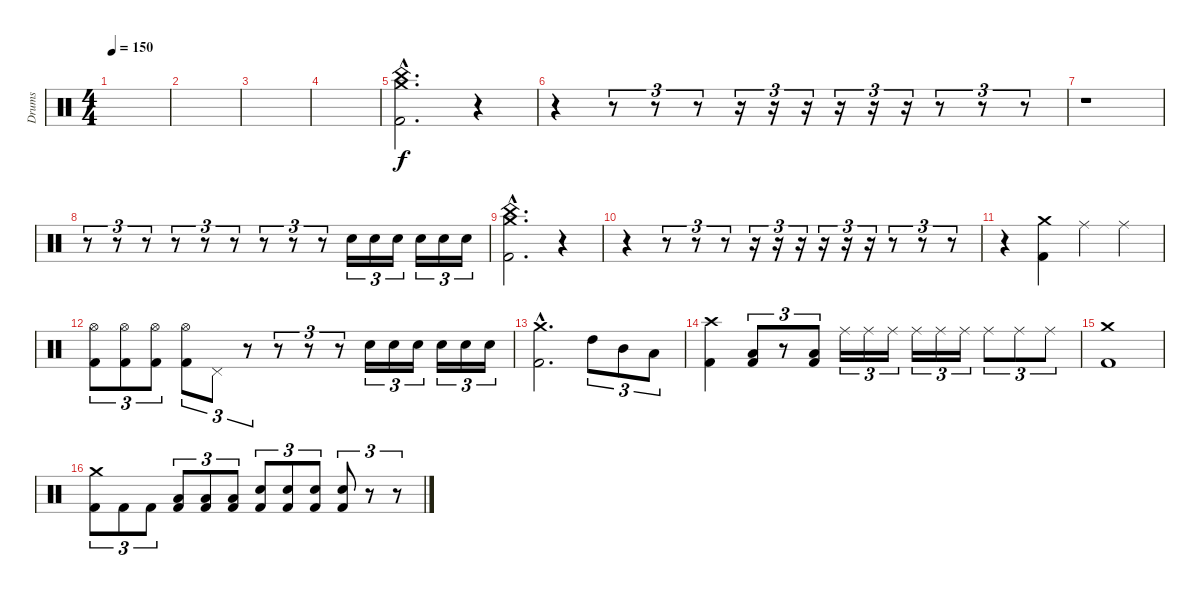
\track ("Drums" "Drums") {instrument percussion}
\staff {score}
\articulation defaults
\ts (4 4)
\tempo 150
\clef neutral
\ks c
|
|
|
|
("China (hit)"{hac} "Crash medium (hit)"{hac} "Kick (hit) 2"{hac}).2{d} r.4 |
r.4 r.8{tu (3 2)} r.8{tu (3 2)} r.8{tu (3 2)} r.16{tu (3 2)} r.16{tu (3 2)} r.16{tu (3 2)} r.16{tu (3 2)} r.16{tu (3 2)} r.16{tu (3 2)} r.8{tu (3 2)} r.8{tu (3 2)} r.8{tu (3 2)} |
r.1 |
r.8{tu (3 2)} r.8{tu (3 2)} r.8{tu (3 2)} r.8{tu (3 2)} r.8{tu (3 2)} r.8{tu (3 2)} r.8{tu (3 2)} r.8{tu (3 2)} r.8{tu (3 2)} "Electric Snare (hit)".16{tu (3 2)} "Electric Snare (hit)".16{tu (3 2)} "Electric Snare (hit)".16{tu (3 2)} "Electric Snare (hit)".16{tu (3 2)} "Electric Snare (hit)".16{tu (3 2)} "Electric Snare (hit)".16{tu (3 2)} |
("China (hit)"{hac} "Crash medium (hit)"{hac} "Kick (hit) 2"{hac}).2{d} r.4 |
r.4 r.8{tu (3 2)} r.8{tu (3 2)} r.8{tu (3 2)} r.16{tu (3 2)} r.16{tu (3 2)} r.16{tu (3 2)} r.16{tu (3 2)} r.16{tu (3 2)} r.16{tu (3 2)} r.8{tu (3 2)} r.8{tu (3 2)} r.8{tu (3 2)} |
r.4 ("Crash medium (hit)" "Kick (hit) 2").4 "Ride (middle)".4 "Ride (middle)".4 |
("Hi-Hat (open)" "Kick (hit) 2").8{tu (3 2)} ("Hi-Hat (open)" "Kick (hit) 2").8{tu (3 2)} ("Hi-Hat (open)" "Kick (hit) 2").8{tu (3 2)} ("Hi-Hat (open)" "Kick (hit) 2").8{tu (3 2)} "Pedal Hi-Hat (hit)".8{tu (3 2)} r.8{tu (3 2)} r.8{tu (3 2)} r.8{tu (3 2)} r.8{tu (3 2)} "Electric Snare (hit)".16{tu (3 2)} "Electric Snare (hit)".16{tu (3 2)} "Electric Snare (hit)".16{tu (3 2)} "Electric Snare (hit)".16{tu (3 2)} "Electric Snare (hit)".16{tu (3 2)} "Electric Snare (hit)".16{tu (3 2)} |
("Crash medium (hit)"{hac} "Kick (hit) 2"{hac}).2{d} "High Tom (hit)".8{tu (3 2)} "Mid Tom (hit)".8{tu (3 2)} "Low Tom (hit)".8{tu (3 2)} |
("Crash high (hit)" "Kick (hit) 2").4 ("Low Tom (hit)" "Kick (hit) 2").8{tu (3 2)} r.8{tu (3 2)} ("Low Tom (hit)" "Kick (hit) 2").8{tu (3 2)} "Ride (middle)".16{tu (3 2)} "Ride (middle)".16{tu (3 2)} "Ride (middle)".16{tu (3 2)} "Ride (middle)".16{tu (3 2)} "Ride (middle)".16{tu (3 2)} "Ride (middle)".16{tu (3 2)} "Ride (middle)".8{tu (3 2)} "Ride (middle)".8{tu (3 2)} "Ride (middle)".8{tu (3 2)} |
("Crash medium (hit)" "Kick (hit) 2").1 |
("Crash medium (hit)" "Kick (hit) 2").8{tu (3 2)} "Kick (hit) 2".8{tu (3 2)} "Kick (hit) 2".8{tu (3 2)} ("Low Tom (hit)" "Kick (hit) 2").8{tu (3 2)} ("Low Tom (hit)" "Kick (hit) 2").8{tu (3 2)} ("Low Tom (hit)" "Kick (hit) 2").8{tu (3 2)} ("Electric Snare (hit)" "Kick (hit) 2").8{tu (3 2)} ("Electric Snare (hit)" "Kick (hit) 2").8{tu (3 2)} ("Electric Snare (hit)" "Kick (hit) 2").8{tu (3 2)} ("Electric Snare (hit)" "Kick (hit) 2").8{tu (3 2)} r.8{tu (3 2)} r.8{tu (3 2)}
